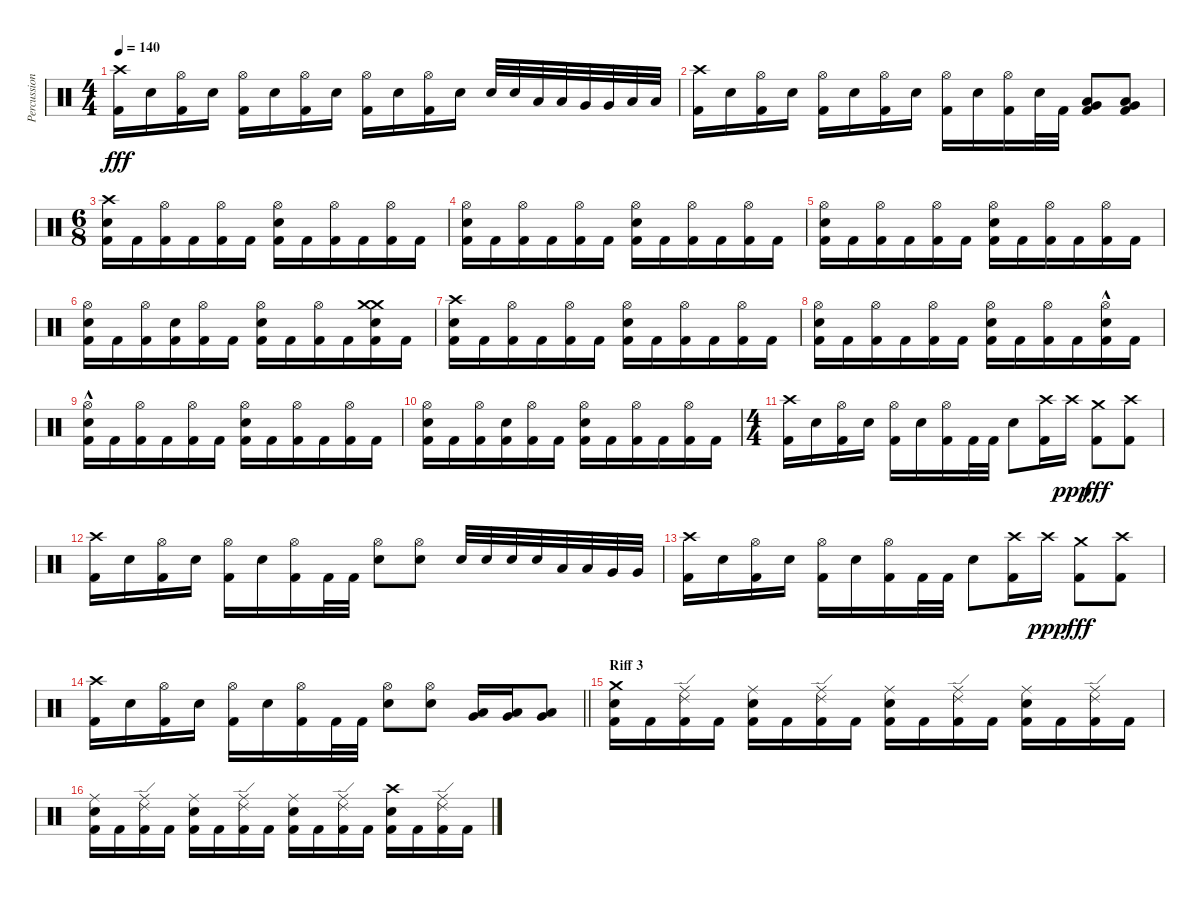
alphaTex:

\track ("Percussion" "Percussion") {instrument percussion}
\staff {score}
\articulation defaults
\ts (4 4)
\tempo 140
\clef neutral
\ks c
("Crash high (hit)" "Kick (hit) 2").16{dy fff} "Electric Snare (hit)".16 ("Hi-Hat (open)" "Kick (hit) 2").16 "Electric Snare (hit)".16 ("Hi-Hat (open)" "Kick (hit) 2").16 "Electric Snare (hit)".16 ("Hi-Hat (open)" "Kick (hit) 2").16 "Electric Snare (hit)".16 ("Hi-Hat (open)" "Kick (hit) 2").16 "Electric Snare (hit)".16 ("Hi-Hat (open)" "Kick (hit) 2").16 "Electric Snare (hit)".16 "Electric Snare (hit)".32 "Electric Snare (hit)".32 "Low Tom (hit)".32 "Low Tom (hit)".32 "Very Low Tom (hit)".32 "Very Low Tom (hit)".32 "Low Floor Tom (hit)".32 "Low Floor Tom (hit)".32 |
("Crash high (hit)" "Kick (hit) 2").16 "Electric Snare (hit)".16 ("Hi-Hat (open)" "Kick (hit) 2").16 "Electric Snare (hit)".16 ("Hi-Hat (open)" "Kick (hit) 2").16 "Electric Snare (hit)".16 ("Hi-Hat (open)" "Kick (hit) 2").16 "Electric Snare (hit)".16 ("Hi-Hat (open)" "Kick (hit) 2").16 "Electric Snare (hit)".16 ("Hi-Hat (open)" "Kick (hit) 2").16 "Electric Snare (hit)".32 "Kick (hit) 2".32 ("Very Low Tom (hit)" "Low Floor Tom (hit)" "Kick (hit) 2").8 ("Very Low Tom (hit)" "Low Floor Tom (hit)" "Kick (hit) 2").8 |
\ts (6 8)
("Crash high (hit)" "Electric Snare (hit)" "Kick (hit) 2").16 "Kick (hit) 2".16 ("Hi-Hat (open)" "Kick (hit) 2").16 "Kick (hit) 2".16 ("Hi-Hat (open)" "Kick (hit) 2").16 "Kick (hit) 2".16 ("Hi-Hat (open)" "Electric Snare (hit)" "Kick (hit) 2").16 "Kick (hit) 2".16 ("Hi-Hat (open)" "Kick (hit) 2").16 "Kick (hit) 2".16 ("Hi-Hat (open)" "Kick (hit) 2").16 "Kick (hit) 2".16 |
("Hi-Hat (open)" "Electric Snare (hit)" "Kick (hit) 2").16 "Kick (hit) 2".16 ("Hi-Hat (open)" "Kick (hit) 2").16 "Kick (hit) 2".16 ("Hi-Hat (open)" "Kick (hit) 2").16 "Kick (hit) 2".16 ("Hi-Hat (open)" "Electric Snare (hit)" "Kick (hit) 2").16 "Kick (hit) 2".16 ("Hi-Hat (open)" "Kick (hit) 2").16 "Kick (hit) 2".16 ("Hi-Hat (open)" "Kick (hit) 2").16 "Kick (hit) 2".16 |
("Hi-Hat (open)" "Electric Snare (hit)" "Kick (hit) 2").16 "Kick (hit) 2".16 ("Hi-Hat (open)" "Kick (hit) 2").16 "Kick (hit) 2".16 ("Hi-Hat (open)" "Kick (hit) 2").16 "Kick (hit) 2".16 ("Hi-Hat (open)" "Electric Snare (hit)" "Kick (hit) 2").16 "Kick (hit) 2".16 ("Hi-Hat (open)" "Kick (hit) 2").16 "Kick (hit) 2".16 ("Hi-Hat (open)" "Kick (hit) 2").16 "Kick (hit) 2".16 |
("Hi-Hat (open)" "Electric Snare (hit)" "Kick (hit) 2").16 "Kick (hit) 2".16 ("Hi-Hat (open)" "Kick (hit) 2").16 ("Electric Snare (hit)" "Kick (hit) 2").16 ("Hi-Hat (open)" "Kick (hit) 2").16 "Kick (hit) 2".16 ("Hi-Hat (open)" "Electric Snare (hit)" "Kick (hit) 2").16 "Kick (hit) 2".16 ("Hi-Hat (open)" "Kick (hit) 2").16 "Kick (hit) 2".16 ("Crash medium (hit)" "Crash medium (hit)" "Electric Snare (hit)" "Kick (hit) 2").16 "Kick (hit) 2".16 |
("Crash high (hit)" "Electric Snare (hit)" "Kick (hit) 2").16 "Kick (hit) 2".16 ("Hi-Hat (open)" "Kick (hit) 2").16 "Kick (hit) 2".16 ("Hi-Hat (open)" "Kick (hit) 2").16 "Kick (hit) 2".16 ("Hi-Hat (open)" "Electric Snare (hit)" "Kick (hit) 2").16 "Kick (hit) 2".16 ("Hi-Hat (open)" "Kick (hit) 2").16 "Kick (hit) 2".16 ("Hi-Hat (open)" "Kick (hit) 2").16 "Kick (hit) 2".16 |
("Hi-Hat (open)" "Electric Snare (hit)" "Kick (hit) 2").16 "Kick (hit) 2".16 ("Hi-Hat (open)" "Kick (hit) 2").16 "Kick (hit) 2".16 ("Hi-Hat (open)" "Kick (hit) 2").16 "Kick (hit) 2".16 ("Hi-Hat (open)" "Electric Snare (hit)" "Kick (hit) 2").16 "Kick (hit) 2".16 ("Hi-Hat (open)" "Kick (hit) 2").16 "Kick (hit) 2".16 ("Hi-Hat (open)" "Electric Snare (hit)"{hac} "Kick (hit) 2").16 "Kick (hit) 2".16 |
("Hi-Hat (open)" "Electric Snare (hit)"{hac} "Kick (hit) 2").16 "Kick (hit) 2".16 ("Hi-Hat (open)" "Kick (hit) 2").16 "Kick (hit) 2".16 ("Hi-Hat (open)" "Kick (hit) 2").16 "Kick (hit) 2".16 ("Hi-Hat (open)" "Electric Snare (hit)" "Kick (hit) 2").16 "Kick (hit) 2".16 ("Hi-Hat (open)" "Kick (hit) 2").16 "Kick (hit) 2".16 ("Hi-Hat (open)" "Kick (hit) 2").16 "Kick (hit) 2".16 |
("Hi-Hat (open)" "Electric Snare (hit)" "Kick (hit) 2").16 "Kick (hit) 2".16 ("Hi-Hat (open)" "Kick (hit) 2").16 ("Electric Snare (hit)" "Kick (hit) 2").16 ("Hi-Hat (open)" "Kick (hit) 2").16 "Kick (hit) 2".16 ("Hi-Hat (open)" "Electric Snare (hit)" "Kick (hit) 2").16 "Kick (hit) 2".16 ("Hi-Hat (open)" "Kick (hit) 2").16 "Kick (hit) 2".16 ("Hi-Hat (open)" "Kick (hit) 2").16 "Kick (hit) 2".16 |
\ts (4 4)
("Crash high (hit)" "Kick (hit) 2").16 "Electric Snare (hit)".16 ("Hi-Hat (open)" "Kick (hit) 2").16 "Electric Snare (hit)".16 ("Hi-Hat (open)" "Kick (hit) 2").16 "Electric Snare (hit)".16 ("Hi-Hat (open)" "Kick (hit) 2").16 "Kick (hit) 2".32 "Kick (hit) 2".32 "Electric Snare (hit)".8 ("Crash high (hit)" "Kick (hit) 2").16 "Crash high (hit)".16{dy ppp} ("Crash medium (hit)" "Kick (hit) 2").8{dy fff} ("Crash high (hit)" "Kick (hit) 2").8 |
("Crash high (hit)" "Kick (hit) 2").16 "Electric Snare (hit)".16 ("Hi-Hat (open)" "Kick (hit) 2").16 "Electric Snare (hit)".16 ("Hi-Hat (open)" "Kick (hit) 2").16 "Electric Snare (hit)".16 ("Hi-Hat (open)" "Kick (hit) 2").16 "Kick (hit) 2".32 "Kick (hit) 2".32 ("Hi-Hat (open)" "Electric Snare (hit)").8 ("Hi-Hat (open)" "Electric Snare (hit)").8 "Electric Snare (hit)".32 "Electric Snare (hit)".32 "Electric Snare (hit)".32 "Electric Snare (hit)".32 "Low Tom (hit)".32 "Low Tom (hit)".32 "Very Low Tom (hit)".32 "Very Low Tom (hit)".32 |
("Crash high (hit)" "Kick (hit) 2").16 "Electric Snare (hit)".16 ("Hi-Hat (open)" "Kick (hit) 2").16 "Electric Snare (hit)".16 ("Hi-Hat (open)" "Kick (hit) 2").16 "Electric Snare (hit)".16 ("Hi-Hat (open)" "Kick (hit) 2").16 "Kick (hit) 2".32 "Kick (hit) 2".32 "Electric Snare (hit)".8 ("Crash high (hit)" "Kick (hit) 2").16 "Crash high (hit)".16{dy ppp} ("Crash medium (hit)" "Kick (hit) 2").8{dy fff} ("Crash high (hit)" "Kick (hit) 2").8 |
\barLineRight lightlight
("Crash high (hit)" "Kick (hit) 2").16 "Electric Snare (hit)".16 ("Hi-Hat (open)" "Kick (hit) 2").16 "Electric Snare (hit)".16 ("Hi-Hat (open)" "Kick (hit) 2").16 "Electric Snare (hit)".16 ("Hi-Hat (open)" "Kick (hit) 2").16 "Kick (hit) 2".32 "Kick (hit) 2".32 ("Hi-Hat (open)" "Electric Snare (hit)").8 ("Hi-Hat (open)" "Electric Snare (hit)").8 ("Very Low Tom (hit)" "Low Floor Tom (hit)").16 ("Very Low Tom (hit)" "Low Floor Tom (hit)").16 ("Very Low Tom (hit)" "Low Floor Tom (hit)").8 |
\section ("" "Riff 3")
("Crash medium (hit)" "Electric Snare (hit)" "Kick (hit) 2").16 "Kick (hit) 2".16 ("Ride (edge) 2" "Ride (middle)" "Kick (hit) 2").16 "Kick (hit) 2".16 ("Ride (middle)" "Electric Snare (hit)" "Kick (hit) 2").16 "Kick (hit) 2".16 ("Ride (edge) 2" "Ride (middle)" "Kick (hit) 2").16 "Kick (hit) 2".16 ("Ride (middle)" "Electric Snare (hit)" "Kick (hit) 2").16 "Kick (hit) 2".16 ("Ride (edge) 2" "Ride (middle)" "Kick (hit) 2").16 "Kick (hit) 2".16 ("Ride (middle)" "Electric Snare (hit)" "Kick (hit) 2").16 "Kick (hit) 2".16 ("Ride (edge) 2" "Ride (middle)" "Kick (hit) 2").16 "Kick (hit) 2".16 |
("Ride (middle)" "Electric Snare (hit)" "Kick (hit) 2").16 "Kick (hit) 2".16 ("Ride (edge) 2" "Ride (middle)" "Kick (hit) 2").16 "Kick (hit) 2".16 ("Ride (middle)" "Electric Snare (hit)" "Kick (hit) 2").16 "Kick (hit) 2".16 ("Ride (edge) 2" "Ride (middle)" "Kick (hit) 2").16 "Kick (hit) 2".16 ("Ride (middle)" "Electric Snare (hit)" "Kick (hit) 2").16 "Kick (hit) 2".16 ("Ride (edge) 2" "Ride (middle)" "Kick (hit) 2").16 "Kick (hit) 2".16 ("Crash high (hit)" "Electric Snare (hit)" "Kick (hit) 2").16 "Kick (hit) 2".16 ("Ride (edge) 2" "Ride (middle)" "Kick (hit) 2").16 "Kick (hit) 2".16
